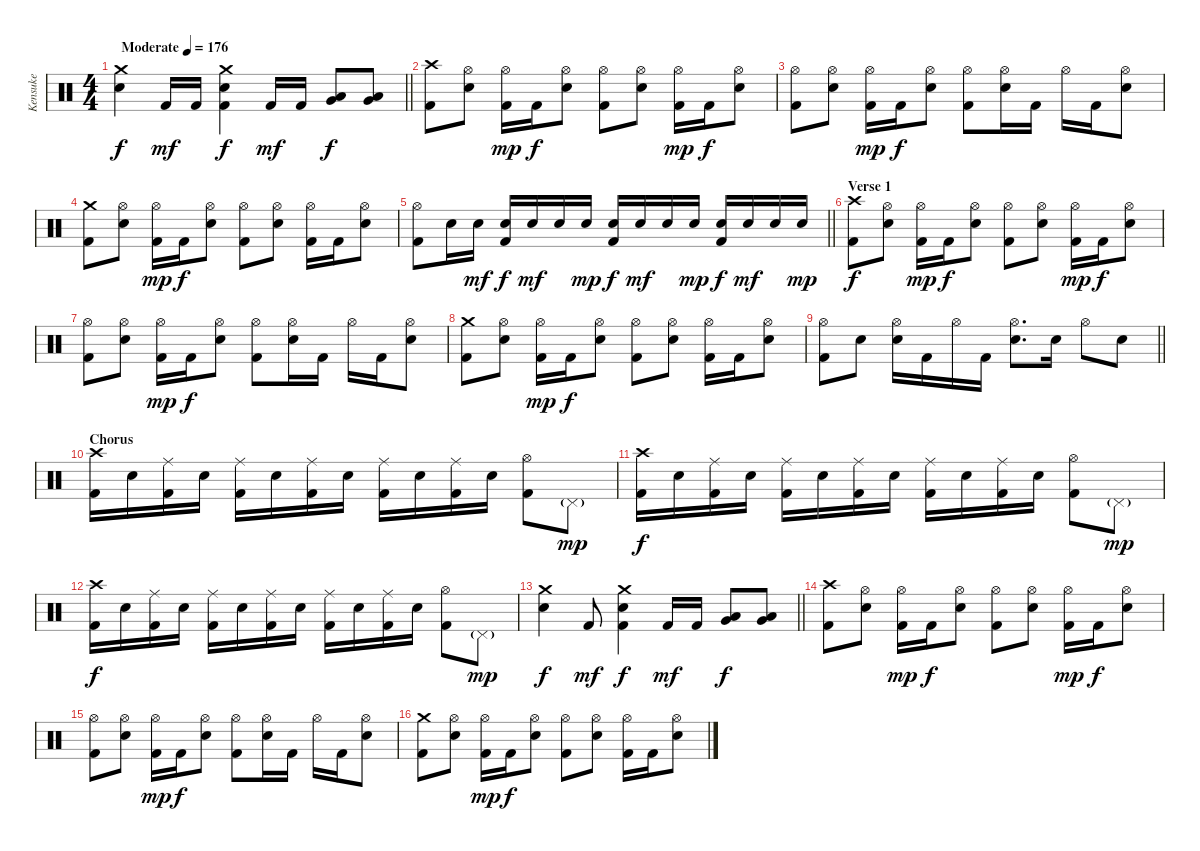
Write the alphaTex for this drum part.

\track ("Kensuke" "Kensuke") {instrument percussion}
\staff {score}
\articulation defaults
\ts (4 4)
\tempo (176 "Moderate")
\clef neutral
\barLineRight lightlight
\ks c
("Crash medium (hit)" "Electric Snare (hit)").4{dy f} "Kick (hit) 2".16{dy mf} "Kick (hit) 2".16 ("Crash medium (hit)" "Electric Snare (hit)" "Kick (hit) 2").4{dy f} "Kick (hit) 2".16{dy mf} "Kick (hit) 2".16 ("Very Low Tom (hit)" "Low Floor Tom (hit)").8{dy f} ("Very Low Tom (hit)" "Low Floor Tom (hit)").8 |
\section ("" "")
("Crash high (hit)" "Kick (hit) 2").8 ("Hi-Hat (open)" "Electric Snare (hit)").8 ("Hi-Hat (open)" "Kick (hit) 2").16{dy mp} "Kick (hit) 2".16{dy f} ("Hi-Hat (open)" "Electric Snare (hit)").8 ("Hi-Hat (open)" "Kick (hit) 2").8 ("Hi-Hat (open)" "Electric Snare (hit)").8 ("Hi-Hat (open)" "Kick (hit) 2").16{dy mp} "Kick (hit) 2".16{dy f} ("Hi-Hat (open)" "Electric Snare (hit)").8 |
("Hi-Hat (open)" "Kick (hit) 2").8 ("Hi-Hat (open)" "Electric Snare (hit)").8 ("Hi-Hat (open)" "Kick (hit) 2").16{dy mp} "Kick (hit) 2".16{dy f} ("Hi-Hat (open)" "Electric Snare (hit)").8 ("Hi-Hat (open)" "Kick (hit) 2").8 ("Hi-Hat (open)" "Electric Snare (hit)").16 "Kick (hit) 2".16 "Hi-Hat (open)".16 "Kick (hit) 2".16 ("Hi-Hat (open)" "Electric Snare (hit)").8 |
("Crash medium (hit)" "Kick (hit) 2").8 ("Hi-Hat (open)" "Electric Snare (hit)").8 ("Hi-Hat (open)" "Kick (hit) 2").16{dy mp} "Kick (hit) 2".16{dy f} ("Hi-Hat (open)" "Electric Snare (hit)").8 ("Hi-Hat (open)" "Kick (hit) 2").8 ("Hi-Hat (open)" "Electric Snare (hit)").8 ("Hi-Hat (open)" "Kick (hit) 2").16 "Kick (hit) 2".16 ("Hi-Hat (open)" "Electric Snare (hit)").8 |
\barLineRight lightlight
("Hi-Hat (open)" "Kick (hit) 2").8 "Electric Snare (hit)".16 "Electric Snare (hit)".16{dy mf} ("Electric Snare (hit)" "Kick (hit) 2").16{dy f} "Electric Snare (hit)".16{dy mf} "Electric Snare (hit)".16 "Electric Snare (hit)".16{dy mp} ("Electric Snare (hit)" "Kick (hit) 2").16{dy f} "Electric Snare (hit)".16{dy mf} "Electric Snare (hit)".16 "Electric Snare (hit)".16{dy mp} ("Electric Snare (hit)" "Kick (hit) 2").16{dy f} "Electric Snare (hit)".16{dy mf} "Electric Snare (hit)".16 "Electric Snare (hit)".16{dy mp} |
\section ("" "Verse 1")
("Crash high (hit)" "Kick (hit) 2").8{dy f} ("Hi-Hat (open)" "Electric Snare (hit)").8 ("Hi-Hat (open)" "Kick (hit) 2").16{dy mp} "Kick (hit) 2".16{dy f} ("Hi-Hat (open)" "Electric Snare (hit)").8 ("Hi-Hat (open)" "Kick (hit) 2").8 ("Hi-Hat (open)" "Electric Snare (hit)").8 ("Hi-Hat (open)" "Kick (hit) 2").16{dy mp} "Kick (hit) 2".16{dy f} ("Hi-Hat (open)" "Electric Snare (hit)").8 |
("Hi-Hat (open)" "Kick (hit) 2").8 ("Hi-Hat (open)" "Electric Snare (hit)").8 ("Hi-Hat (open)" "Kick (hit) 2").16{dy mp} "Kick (hit) 2".16{dy f} ("Hi-Hat (open)" "Electric Snare (hit)").8 ("Hi-Hat (open)" "Kick (hit) 2").8 ("Hi-Hat (open)" "Electric Snare (hit)").16 "Kick (hit) 2".16 "Hi-Hat (open)".16 "Kick (hit) 2".16 ("Hi-Hat (open)" "Electric Snare (hit)").8 |
("Crash medium (hit)" "Kick (hit) 2").8 ("Hi-Hat (open)" "Electric Snare (hit)").8 ("Hi-Hat (open)" "Kick (hit) 2").16{dy mp} "Kick (hit) 2".16{dy f} ("Hi-Hat (open)" "Electric Snare (hit)").8 ("Hi-Hat (open)" "Kick (hit) 2").8 ("Hi-Hat (open)" "Electric Snare (hit)").8 ("Hi-Hat (open)" "Kick (hit) 2").16 "Kick (hit) 2".16 ("Hi-Hat (open)" "Electric Snare (hit)").8 |
\barLineRight lightlight
("Hi-Hat (open)" "Kick (hit) 2").8 "Electric Snare (hit)".8 ("Hi-Hat (open)" "Electric Snare (hit)").16 "Kick (hit) 2".16 "Hi-Hat (open)".16 "Kick (hit) 2".16 ("Hi-Hat (open)" "Electric Snare (hit)").8{d} "Electric Snare (hit)".16 "Hi-Hat (open)".8 "Electric Snare (hit)".8 |
\section ("" "Chorus")
("Crash high (hit)" "Kick (hit) 2").16 "Electric Snare (hit)".16 ("Ride (middle)" "Kick (hit) 2").16 "Electric Snare (hit)".16 ("Ride (middle)" "Kick (hit) 2").16 "Electric Snare (hit)".16 ("Ride (middle)" "Kick (hit) 2").16 "Electric Snare (hit)".16 ("Ride (middle)" "Kick (hit) 2").16 "Electric Snare (hit)".16 ("Ride (middle)" "Kick (hit) 2").16 "Electric Snare (hit)".16 ("Hi-Hat (open)" "Kick (hit) 2").8 "Pedal Hi-Hat (hit)"{g}.8{dy mp} |
("Crash high (hit)" "Kick (hit) 2").16{dy f} "Electric Snare (hit)".16 ("Ride (middle)" "Kick (hit) 2").16 "Electric Snare (hit)".16 ("Ride (middle)" "Kick (hit) 2").16 "Electric Snare (hit)".16 ("Ride (middle)" "Kick (hit) 2").16 "Electric Snare (hit)".16 ("Ride (middle)" "Kick (hit) 2").16 "Electric Snare (hit)".16 ("Ride (middle)" "Kick (hit) 2").16 "Electric Snare (hit)".16 ("Hi-Hat (open)" "Kick (hit) 2").8 "Pedal Hi-Hat (hit)"{g}.8{dy mp} |
("Crash high (hit)" "Kick (hit) 2").16{dy f} "Electric Snare (hit)".16 ("Ride (middle)" "Kick (hit) 2").16 "Electric Snare (hit)".16 ("Ride (middle)" "Kick (hit) 2").16 "Electric Snare (hit)".16 ("Ride (middle)" "Kick (hit) 2").16 "Electric Snare (hit)".16 ("Ride (middle)" "Kick (hit) 2").16 "Electric Snare (hit)".16 ("Ride (middle)" "Kick (hit) 2").16 "Electric Snare (hit)".16 ("Hi-Hat (open)" "Kick (hit) 2").8 "Pedal Hi-Hat (hit)"{g}.8{dy mp} |
\barLineRight lightlight
("Crash medium (hit)" "Electric Snare (hit)").4{dy f} "Kick (hit) 2".8{dy mf} ("Crash medium (hit)" "Electric Snare (hit)" "Kick (hit) 2").4{dy f} "Kick (hit) 2".16{dy mf} "Kick (hit) 2".16 ("Very Low Tom (hit)" "Low Floor Tom (hit)").8{dy f} ("Very Low Tom (hit)" "Low Floor Tom (hit)").8 |
\section ("" "")
("Crash high (hit)" "Kick (hit) 2").8 ("Hi-Hat (open)" "Electric Snare (hit)").8 ("Hi-Hat (open)" "Kick (hit) 2").16{dy mp} "Kick (hit) 2".16{dy f} ("Hi-Hat (open)" "Electric Snare (hit)").8 ("Hi-Hat (open)" "Kick (hit) 2").8 ("Hi-Hat (open)" "Electric Snare (hit)").8 ("Hi-Hat (open)" "Kick (hit) 2").16{dy mp} "Kick (hit) 2".16{dy f} ("Hi-Hat (open)" "Electric Snare (hit)").8 |
("Hi-Hat (open)" "Kick (hit) 2").8 ("Hi-Hat (open)" "Electric Snare (hit)").8 ("Hi-Hat (open)" "Kick (hit) 2").16{dy mp} "Kick (hit) 2".16{dy f} ("Hi-Hat (open)" "Electric Snare (hit)").8 ("Hi-Hat (open)" "Kick (hit) 2").8 ("Hi-Hat (open)" "Electric Snare (hit)").16 "Kick (hit) 2".16 "Hi-Hat (open)".16 "Kick (hit) 2".16 ("Hi-Hat (open)" "Electric Snare (hit)").8 |
("Crash medium (hit)" "Kick (hit) 2").8 ("Hi-Hat (open)" "Electric Snare (hit)").8 ("Hi-Hat (open)" "Kick (hit) 2").16{dy mp} "Kick (hit) 2".16{dy f} ("Hi-Hat (open)" "Electric Snare (hit)").8 ("Hi-Hat (open)" "Kick (hit) 2").8 ("Hi-Hat (open)" "Electric Snare (hit)").8 ("Hi-Hat (open)" "Kick (hit) 2").16 "Kick (hit) 2".16 ("Hi-Hat (open)" "Electric Snare (hit)").8
